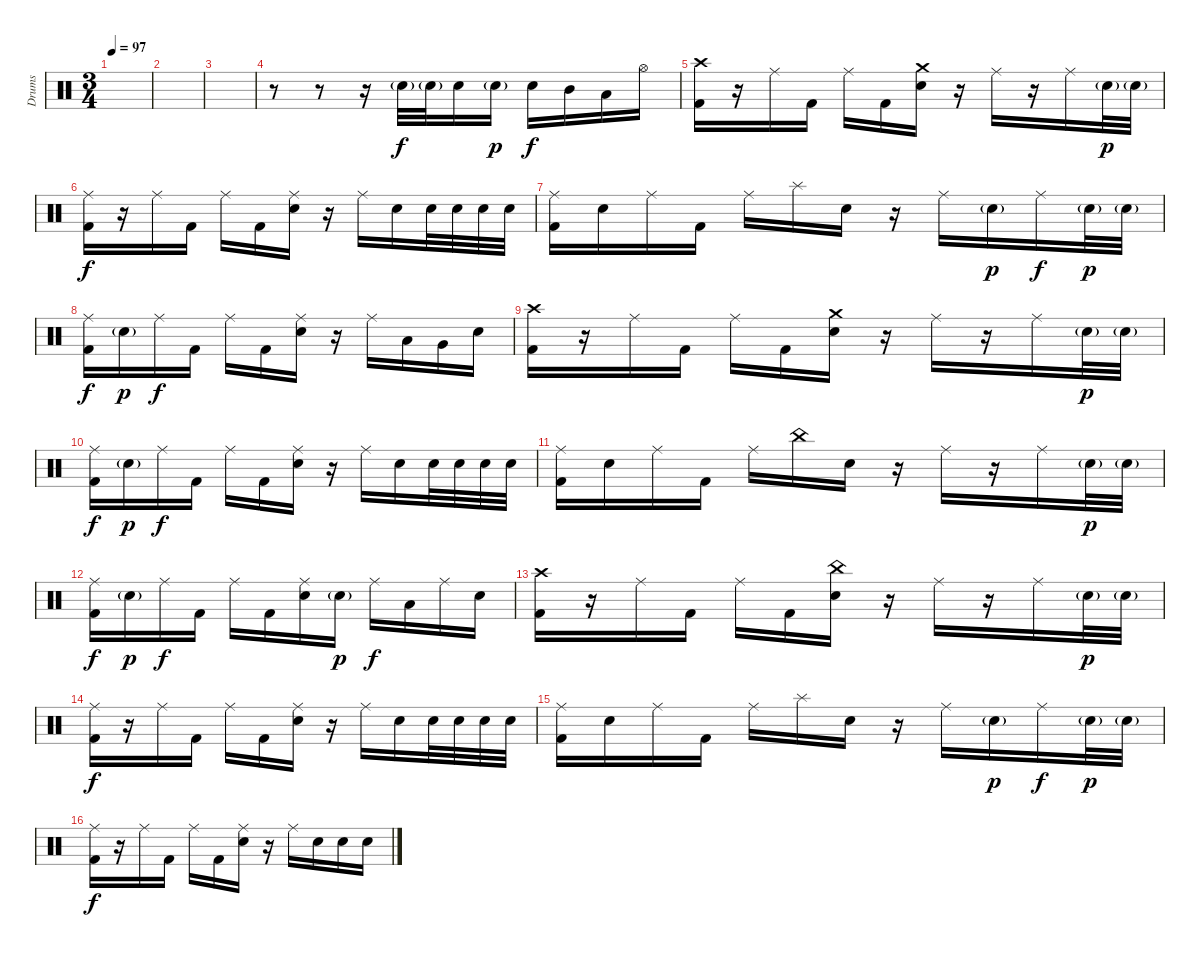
\track ("Drums" "Drums") {instrument percussion}
\staff {score}
\articulation defaults
\ts (3 4)
\tempo 97
\clef neutral
\ks c
|
|
|
r.8 r.8 r.16 "Electric Snare (hit)"{g}.32 "Electric Snare (hit)"{g}.32 "Electric Snare (hit)".16{dy f} "Electric Snare (hit)"{g}.16{dy p} "Electric Snare (hit)".16{dy f} "Mid Tom (hit)".16 "Low Tom (hit)".16 "Hi-Hat (open)".16 |
("Crash high (hit)" "Kick (hit) 2").16 r.16 "Ride (middle)".16 "Kick (hit) 2".16 "Ride (middle)".16 "Kick (hit) 2".16 ("Crash medium (hit)" "Electric Snare (hit)").16 r.16 "Ride (middle)".16 r.16 "Ride (middle)".16 "Electric Snare (hit)"{g}.32{dy p} "Electric Snare (hit)"{g}.32 |
("Ride (middle)" "Kick (hit) 2").16{dy f} r.16 "Ride (middle)".16 "Kick (hit) 2".16 "Ride (middle)".16 "Kick (hit) 2".16 ("Ride (middle)" "Electric Snare (hit)").16 r.16 "Ride (middle)".16 "Electric Snare (hit)".16 "Electric Snare (hit)".32 "Electric Snare (hit)".32 "Electric Snare (hit)".32 "Electric Snare (hit)".32 |
("Ride (middle)" "Kick (hit) 2").16 "Electric Snare (hit)".16 "Ride (middle)".16 "Kick (hit) 2".16 "Ride (middle)".16 "Splash (hit)".16 "Electric Snare (hit)".16 r.16 "Ride (middle)".16 "Electric Snare (hit)"{g}.16{dy p} "Ride (middle)".16{dy f} "Electric Snare (hit)"{g}.32{dy p} "Electric Snare (hit)"{g}.32 |
("Ride (middle)" "Kick (hit) 2").16{dy f} "Electric Snare (hit)"{g}.16{dy p} "Ride (middle)".16{dy f} "Kick (hit) 2".16 "Ride (middle)".16 "Kick (hit) 2".16 ("Ride (middle)" "Electric Snare (hit)").16 r.16 "Ride (middle)".16 "Low Tom (hit)".16 "Very Low Tom (hit)".16 "Electric Snare (hit)".16 |
("Crash high (hit)" "Kick (hit) 2").16 r.16 "Ride (middle)".16 "Kick (hit) 2".16 "Ride (middle)".16 "Kick (hit) 2".16 ("Crash medium (hit)" "Electric Snare (hit)").16 r.16 "Ride (middle)".16 r.16 "Ride (middle)".16 "Electric Snare (hit)"{g}.32{dy p} "Electric Snare (hit)"{g}.32 |
("Ride (middle)" "Kick (hit) 2").16{dy f} "Electric Snare (hit)"{g}.16{dy p} "Ride (middle)".16{dy f} "Kick (hit) 2".16 "Ride (middle)".16 "Kick (hit) 2".16 ("Ride (middle)" "Electric Snare (hit)").16 r.16 "Ride (middle)".16 "Electric Snare (hit)".16 "Electric Snare (hit)".32 "Electric Snare (hit)".32 "Electric Snare (hit)".32 "Electric Snare (hit)".32 |
("Ride (middle)" "Kick (hit) 2").16 "Electric Snare (hit)".16 "Ride (middle)".16 "Kick (hit) 2".16 "Ride (middle)".16 "China (hit)".16 "Electric Snare (hit)".16 r.16 "Ride (middle)".16 r.16 "Ride (middle)".16 "Electric Snare (hit)"{g}.32{dy p} "Electric Snare (hit)"{g}.32 |
("Ride (middle)" "Kick (hit) 2").16{dy f} "Electric Snare (hit)"{g}.16{dy p} "Ride (middle)".16{dy f} "Kick (hit) 2".16 "Ride (middle)".16 "Kick (hit) 2".16 ("Ride (middle)" "Electric Snare (hit)").16 "Electric Snare (hit)"{g}.16{dy p} "Ride (middle)".16{dy f} "Low Tom (hit)".16 "Ride (middle)".16 "Electric Snare (hit)".16 |
("Crash high (hit)" "Kick (hit) 2").16 r.16 "Ride (middle)".16 "Kick (hit) 2".16 "Ride (middle)".16 "Kick (hit) 2".16 ("China (hit)" "Electric Snare (hit)").16 r.16 "Ride (middle)".16 r.16 "Ride (middle)".16 "Electric Snare (hit)"{g}.32{dy p} "Electric Snare (hit)"{g}.32 |
("Ride (middle)" "Kick (hit) 2").16{dy f} r.16 "Ride (middle)".16 "Kick (hit) 2".16 "Ride (middle)".16 "Kick (hit) 2".16 ("Ride (middle)" "Electric Snare (hit)").16 r.16 "Ride (middle)".16 "Electric Snare (hit)".16 "Electric Snare (hit)".32 "Electric Snare (hit)".32 "Electric Snare (hit)".32 "Electric Snare (hit)".32 |
("Ride (middle)" "Kick (hit) 2").16 "Electric Snare (hit)".16 "Ride (middle)".16 "Kick (hit) 2".16 "Ride (middle)".16 "Splash (hit)".16 "Electric Snare (hit)".16 r.16 "Ride (middle)".16 "Electric Snare (hit)"{g}.16{dy p} "Ride (middle)".16{dy f} "Electric Snare (hit)"{g}.32{dy p} "Electric Snare (hit)"{g}.32 |
("Ride (middle)" "Kick (hit) 2").16{dy f} r.16 "Ride (middle)".16 "Kick (hit) 2".16 "Ride (middle)".16 "Kick (hit) 2".16 ("Ride (middle)" "Electric Snare (hit)").16 r.16 "Ride (middle)".16 "Electric Snare (hit)".16 "Electric Snare (hit)".16 "Electric Snare (hit)".16
